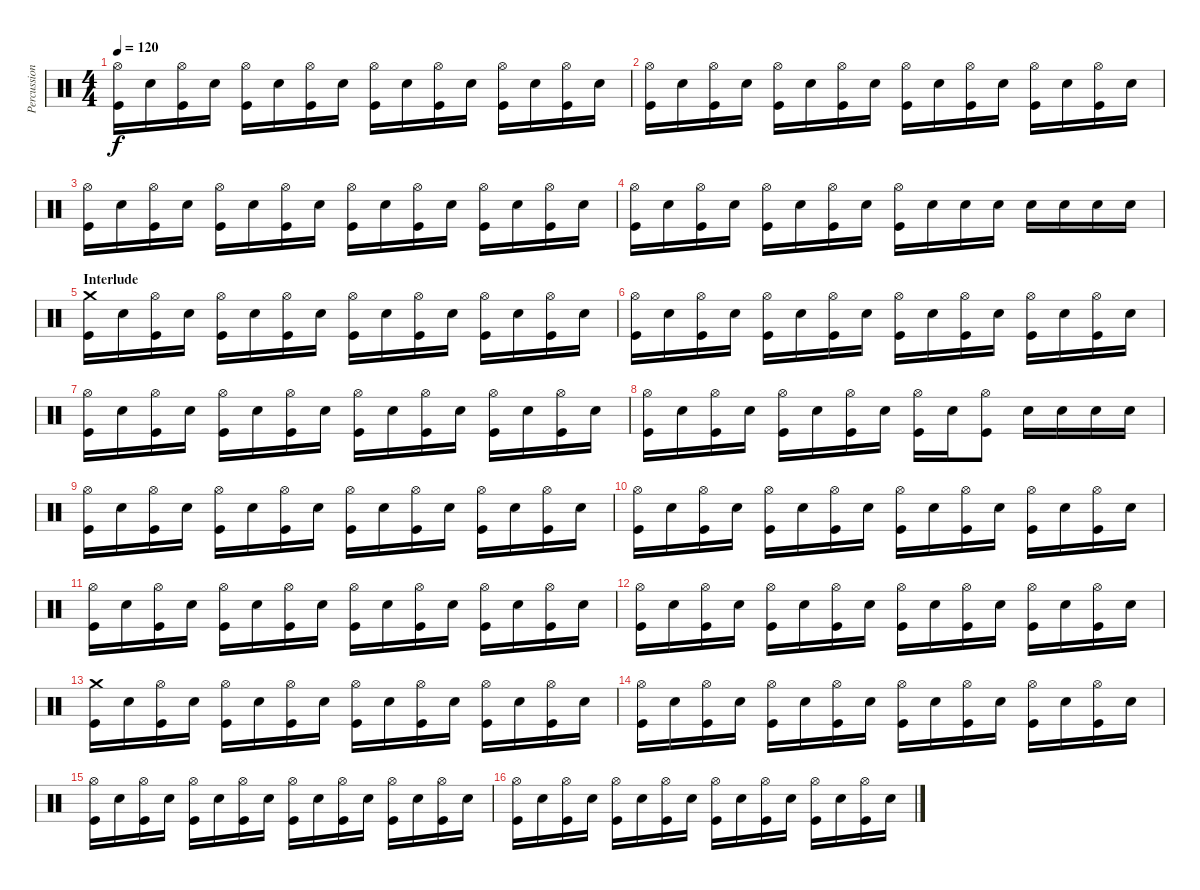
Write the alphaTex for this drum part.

\track ("Percussioni" "Percussion") {instrument percussion}
\staff {score}
\articulation defaults
\ts (4 4)
\tempo 120
\clef neutral
\ks c
("Hi-Hat (open)" "Kick (hit)").16{dy f} "Snare (hit) 2".16 ("Hi-Hat (open)" "Kick (hit)").16 "Snare (hit) 2".16 ("Hi-Hat (open)" "Kick (hit)").16 "Snare (hit) 2".16 ("Hi-Hat (open)" "Kick (hit)").16 "Snare (hit) 2".16 ("Hi-Hat (open)" "Kick (hit)").16 "Snare (hit) 2".16 ("Hi-Hat (open)" "Kick (hit)").16 "Snare (hit) 2".16 ("Hi-Hat (open)" "Kick (hit)").16 "Snare (hit) 2".16 ("Hi-Hat (open)" "Kick (hit)").16 "Snare (hit) 2".16 |
("Hi-Hat (open)" "Kick (hit)").16 "Snare (hit) 2".16 ("Hi-Hat (open)" "Kick (hit)").16 "Snare (hit) 2".16 ("Hi-Hat (open)" "Kick (hit)").16 "Snare (hit) 2".16 ("Hi-Hat (open)" "Kick (hit)").16 "Snare (hit) 2".16 ("Hi-Hat (open)" "Kick (hit)").16 "Snare (hit) 2".16 ("Hi-Hat (open)" "Kick (hit)").16 "Snare (hit) 2".16 ("Hi-Hat (open)" "Kick (hit)").16 "Snare (hit) 2".16 ("Hi-Hat (open)" "Kick (hit)").16 "Snare (hit) 2".16 |
("Hi-Hat (open)" "Kick (hit)").16 "Snare (hit) 2".16 ("Hi-Hat (open)" "Kick (hit)").16 "Snare (hit) 2".16 ("Hi-Hat (open)" "Kick (hit)").16 "Snare (hit) 2".16 ("Hi-Hat (open)" "Kick (hit)").16 "Snare (hit) 2".16 ("Hi-Hat (open)" "Kick (hit)").16 "Snare (hit) 2".16 ("Hi-Hat (open)" "Kick (hit)").16 "Snare (hit) 2".16 ("Hi-Hat (open)" "Kick (hit)").16 "Snare (hit) 2".16 ("Hi-Hat (open)" "Kick (hit)").16 "Snare (hit) 2".16 |
("Hi-Hat (open)" "Kick (hit)").16 "Snare (hit) 2".16 ("Hi-Hat (open)" "Kick (hit)").16 "Snare (hit) 2".16 ("Hi-Hat (open)" "Kick (hit)").16 "Snare (hit) 2".16 ("Hi-Hat (open)" "Kick (hit)").16 "Snare (hit) 2".16 ("Hi-Hat (open)" "Kick (hit)").16 "Snare (hit) 2".16 "Snare (hit) 2".16 "Snare (hit) 2".16 "Snare (hit) 2".16 "Snare (hit) 2".16 "Snare (hit) 2".16 "Snare (hit) 2".16 |
\section ("" "Interlude")
("Crash medium (hit)" "Kick (hit)").16 "Snare (hit) 2".16 ("Hi-Hat (open)" "Kick (hit)").16 "Snare (hit) 2".16 ("Hi-Hat (open)" "Kick (hit)").16 "Snare (hit) 2".16 ("Hi-Hat (open)" "Kick (hit)").16 "Snare (hit) 2".16 ("Hi-Hat (open)" "Kick (hit)").16 "Snare (hit) 2".16 ("Hi-Hat (open)" "Kick (hit)").16 "Snare (hit) 2".16 ("Hi-Hat (open)" "Kick (hit)").16 "Snare (hit) 2".16 ("Hi-Hat (open)" "Kick (hit)").16 "Snare (hit) 2".16 |
("Hi-Hat (open)" "Kick (hit)").16 "Snare (hit) 2".16 ("Hi-Hat (open)" "Kick (hit)").16 "Snare (hit) 2".16 ("Hi-Hat (open)" "Kick (hit)").16 "Snare (hit) 2".16 ("Hi-Hat (open)" "Kick (hit)").16 "Snare (hit) 2".16 ("Hi-Hat (open)" "Kick (hit)").16 "Snare (hit) 2".16 ("Hi-Hat (open)" "Kick (hit)").16 "Snare (hit) 2".16 ("Hi-Hat (open)" "Kick (hit)").16 "Snare (hit) 2".16 ("Hi-Hat (open)" "Kick (hit)").16 "Snare (hit) 2".16 |
("Hi-Hat (open)" "Kick (hit)").16 "Snare (hit) 2".16 ("Hi-Hat (open)" "Kick (hit)").16 "Snare (hit) 2".16 ("Hi-Hat (open)" "Kick (hit)").16 "Snare (hit) 2".16 ("Hi-Hat (open)" "Kick (hit)").16 "Snare (hit) 2".16 ("Hi-Hat (open)" "Kick (hit)").16 "Snare (hit) 2".16 ("Hi-Hat (open)" "Kick (hit)").16 "Snare (hit) 2".16 ("Hi-Hat (open)" "Kick (hit)").16 "Snare (hit) 2".16 ("Hi-Hat (open)" "Kick (hit)").16 "Snare (hit) 2".16 |
("Hi-Hat (open)" "Kick (hit)").16 "Snare (hit) 2".16 ("Hi-Hat (open)" "Kick (hit)").16 "Snare (hit) 2".16 ("Hi-Hat (open)" "Kick (hit)").16 "Snare (hit) 2".16 ("Hi-Hat (open)" "Kick (hit)").16 "Snare (hit) 2".16 ("Hi-Hat (open)" "Kick (hit)").16 "Snare (hit) 2".16 ("Hi-Hat (open)" "Kick (hit)").8 "Snare (hit) 2".16 "Snare (hit) 2".16 "Snare (hit) 2".16 "Snare (hit) 2".16 |
("Hi-Hat (open)" "Kick (hit)").16 "Snare (hit) 2".16 ("Hi-Hat (open)" "Kick (hit)").16 "Snare (hit) 2".16 ("Hi-Hat (open)" "Kick (hit)").16 "Snare (hit) 2".16 ("Hi-Hat (open)" "Kick (hit)").16 "Snare (hit) 2".16 ("Hi-Hat (open)" "Kick (hit)").16 "Snare (hit) 2".16 ("Hi-Hat (open)" "Kick (hit)").16 "Snare (hit) 2".16 ("Hi-Hat (open)" "Kick (hit)").16 "Snare (hit) 2".16 ("Hi-Hat (open)" "Kick (hit)").16 "Snare (hit) 2".16 |
("Hi-Hat (open)" "Kick (hit)").16 "Snare (hit) 2".16 ("Hi-Hat (open)" "Kick (hit)").16 "Snare (hit) 2".16 ("Hi-Hat (open)" "Kick (hit)").16 "Snare (hit) 2".16 ("Hi-Hat (open)" "Kick (hit)").16 "Snare (hit) 2".16 ("Hi-Hat (open)" "Kick (hit)").16 "Snare (hit) 2".16 ("Hi-Hat (open)" "Kick (hit)").16 "Snare (hit) 2".16 ("Hi-Hat (open)" "Kick (hit)").16 "Snare (hit) 2".16 ("Hi-Hat (open)" "Kick (hit)").16 "Snare (hit) 2".16 |
("Hi-Hat (open)" "Kick (hit)").16 "Snare (hit) 2".16 ("Hi-Hat (open)" "Kick (hit)").16 "Snare (hit) 2".16 ("Hi-Hat (open)" "Kick (hit)").16 "Snare (hit) 2".16 ("Hi-Hat (open)" "Kick (hit)").16 "Snare (hit) 2".16 ("Hi-Hat (open)" "Kick (hit)").16 "Snare (hit) 2".16 ("Hi-Hat (open)" "Kick (hit)").16 "Snare (hit) 2".16 ("Hi-Hat (open)" "Kick (hit)").16 "Snare (hit) 2".16 ("Hi-Hat (open)" "Kick (hit)").16 "Snare (hit) 2".16 |
("Hi-Hat (open)" "Kick (hit)").16 "Snare (hit) 2".16 ("Hi-Hat (open)" "Kick (hit)").16 "Snare (hit) 2".16 ("Hi-Hat (open)" "Kick (hit)").16 "Snare (hit) 2".16 ("Hi-Hat (open)" "Kick (hit)").16 "Snare (hit) 2".16 ("Hi-Hat (open)" "Kick (hit)").16 "Snare (hit) 2".16 ("Hi-Hat (open)" "Kick (hit)").16 "Snare (hit) 2".16 ("Hi-Hat (open)" "Kick (hit)").16 "Snare (hit) 2".16 ("Hi-Hat (open)" "Kick (hit)").16 "Snare (hit) 2".16 |
("Crash medium (hit)" "Kick (hit)").16 "Snare (hit) 2".16 ("Hi-Hat (open)" "Kick (hit)").16 "Snare (hit) 2".16 ("Hi-Hat (open)" "Kick (hit)").16 "Snare (hit) 2".16 ("Hi-Hat (open)" "Kick (hit)").16 "Snare (hit) 2".16 ("Hi-Hat (open)" "Kick (hit)").16 "Snare (hit) 2".16 ("Hi-Hat (open)" "Kick (hit)").16 "Snare (hit) 2".16 ("Hi-Hat (open)" "Kick (hit)").16 "Snare (hit) 2".16 ("Hi-Hat (open)" "Kick (hit)").16 "Snare (hit) 2".16 |
("Hi-Hat (open)" "Kick (hit)").16 "Snare (hit) 2".16 ("Hi-Hat (open)" "Kick (hit)").16 "Snare (hit) 2".16 ("Hi-Hat (open)" "Kick (hit)").16 "Snare (hit) 2".16 ("Hi-Hat (open)" "Kick (hit)").16 "Snare (hit) 2".16 ("Hi-Hat (open)" "Kick (hit)").16 "Snare (hit) 2".16 ("Hi-Hat (open)" "Kick (hit)").16 "Snare (hit) 2".16 ("Hi-Hat (open)" "Kick (hit)").16 "Snare (hit) 2".16 ("Hi-Hat (open)" "Kick (hit)").16 "Snare (hit) 2".16 |
("Hi-Hat (open)" "Kick (hit)").16 "Snare (hit) 2".16 ("Hi-Hat (open)" "Kick (hit)").16 "Snare (hit) 2".16 ("Hi-Hat (open)" "Kick (hit)").16 "Snare (hit) 2".16 ("Hi-Hat (open)" "Kick (hit)").16 "Snare (hit) 2".16 ("Hi-Hat (open)" "Kick (hit)").16 "Snare (hit) 2".16 ("Hi-Hat (open)" "Kick (hit)").16 "Snare (hit) 2".16 ("Hi-Hat (open)" "Kick (hit)").16 "Snare (hit) 2".16 ("Hi-Hat (open)" "Kick (hit)").16 "Snare (hit) 2".16 |
("Hi-Hat (open)" "Kick (hit)").16 "Snare (hit) 2".16 ("Hi-Hat (open)" "Kick (hit)").16 "Snare (hit) 2".16 ("Hi-Hat (open)" "Kick (hit)").16 "Snare (hit) 2".16 ("Hi-Hat (open)" "Kick (hit)").16 "Snare (hit) 2".16 ("Hi-Hat (open)" "Kick (hit)").16 "Snare (hit) 2".16 ("Hi-Hat (open)" "Kick (hit)").16 "Snare (hit) 2".16 ("Hi-Hat (open)" "Kick (hit)").16 "Snare (hit) 2".16 ("Hi-Hat (open)" "Kick (hit)").16 "Snare (hit) 2".16
